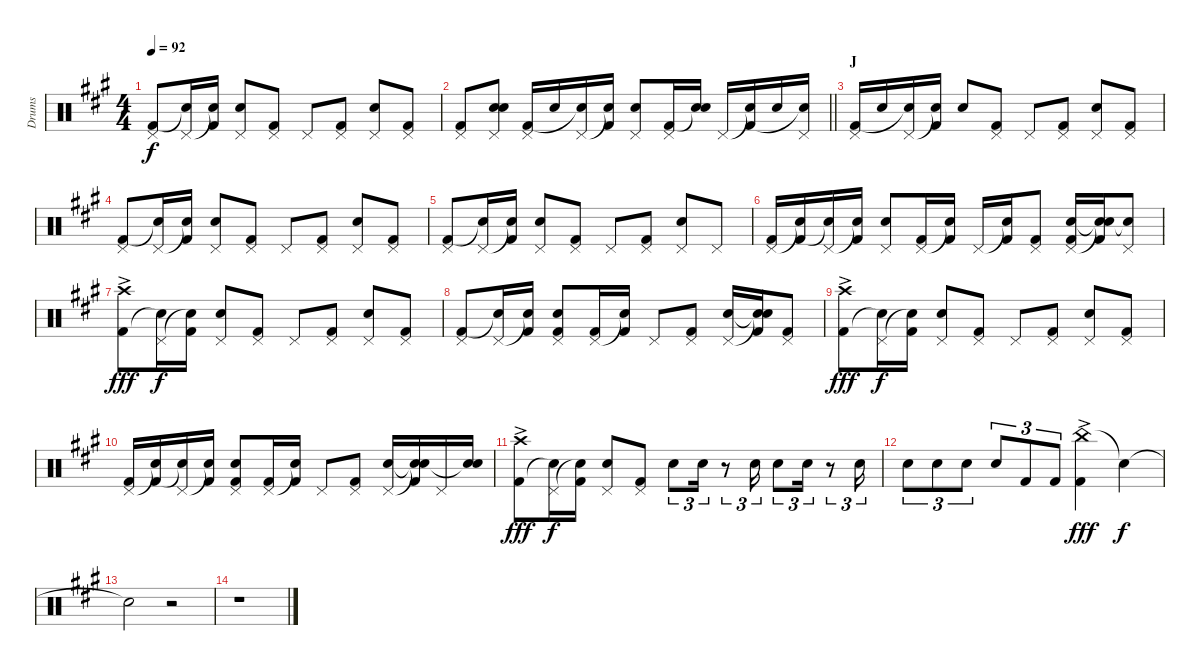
\track ("Drums" "Drums") {instrument percussion}
\staff {score}
\articulation defaults
\ts (4 4)
\tempo 92
\clef neutral
\ks a
("Pedal Hi-Hat (hit)" "Kick (hit) 2").8{dy f} ("Pedal Hi-Hat (hit)" "Snare (hit)"{t}).16 ("Snare (hit)"{t} "Kick (hit) 2").16 ("Pedal Hi-Hat (hit)" "Electric Snare (hit)").8 ("Pedal Hi-Hat (hit)" "Kick (hit) 2").8 "Pedal Hi-Hat (hit)".8 ("Pedal Hi-Hat (hit)" "Kick (hit) 2").8 ("Pedal Hi-Hat (hit)" "Electric Snare (hit)").8 ("Pedal Hi-Hat (hit)" "Kick (hit) 2").8 |
\barLineRight lightlight
("Pedal Hi-Hat (hit)" "Kick (hit) 2").8 ("Pedal Hi-Hat (hit)" "Electric Snare (hit)" "Snare (hit)").8 ("Pedal Hi-Hat (hit)" "Kick (hit) 2").16 "Electric Snare (hit)".16 ("Pedal Hi-Hat (hit)" "Snare (hit)"{t}).16 ("Snare (hit)"{t} "Kick (hit) 2").16 ("Pedal Hi-Hat (hit)" "Electric Snare (hit)").8 ("Pedal Hi-Hat (hit)" "Kick (hit) 2").16 ("Electric Snare (hit)" "Snare (hit)"{t}).16 "Pedal Hi-Hat (hit)".16 ("Snare (hit)"{t} "Kick (hit) 2").16 "Electric Snare (hit)".16 ("Pedal Hi-Hat (hit)" "Snare (hit)"{t}).16 |
\section ("" "J")
("Pedal Hi-Hat (hit)" "Kick (hit) 2").16 "Electric Snare (hit)".16 ("Pedal Hi-Hat (hit)" "Snare (hit)"{t}).16 ("Snare (hit)"{t} "Kick (hit) 2").16 "Electric Snare (hit)".8 ("Pedal Hi-Hat (hit)" "Kick (hit) 2").8 "Pedal Hi-Hat (hit)".8 ("Pedal Hi-Hat (hit)" "Kick (hit) 2").8 ("Pedal Hi-Hat (hit)" "Electric Snare (hit)").8 ("Pedal Hi-Hat (hit)" "Kick (hit) 2").8 |
("Pedal Hi-Hat (hit)" "Kick (hit) 2").8 ("Pedal Hi-Hat (hit)" "Snare (hit)"{t}).16 ("Snare (hit)"{t} "Kick (hit) 2").16 ("Pedal Hi-Hat (hit)" "Electric Snare (hit)").8 ("Pedal Hi-Hat (hit)" "Kick (hit) 2").8 "Pedal Hi-Hat (hit)".8 ("Pedal Hi-Hat (hit)" "Kick (hit) 2").8 ("Pedal Hi-Hat (hit)" "Electric Snare (hit)").8 ("Pedal Hi-Hat (hit)" "Kick (hit) 2").8 |
("Pedal Hi-Hat (hit)" "Kick (hit) 2").8 ("Pedal Hi-Hat (hit)" "Snare (hit)"{t}).16 ("Snare (hit)"{t} "Kick (hit) 2").16 ("Pedal Hi-Hat (hit)" "Electric Snare (hit)").8 ("Pedal Hi-Hat (hit)" "Kick (hit) 2").8 "Pedal Hi-Hat (hit)".8 ("Pedal Hi-Hat (hit)" "Kick (hit) 2").8 ("Pedal Hi-Hat (hit)" "Electric Snare (hit)").8 "Pedal Hi-Hat (hit)".8 |
("Pedal Hi-Hat (hit)" "Kick (hit) 2").16 ("Snare (hit)"{t} "Kick (hit) 2").16 ("Pedal Hi-Hat (hit)" "Snare (hit)"{t}).16 ("Snare (hit)"{t} "Kick (hit) 2").16 ("Pedal Hi-Hat (hit)" "Electric Snare (hit)").8 ("Pedal Hi-Hat (hit)" "Kick (hit) 2").16 ("Snare (hit)"{t} "Kick (hit) 2").16 "Pedal Hi-Hat (hit)".16 ("Snare (hit)"{t} "Kick (hit) 2").16 ("Pedal Hi-Hat (hit)" "Kick (hit) 2").8 ("Pedal Hi-Hat (hit)" "Electric Snare (hit)" "Kick (hit) 2").16 ("Snare (hit)"{t} "Snare (hit)"{t} "Kick (hit) 2").16 ("Pedal Hi-Hat (hit)" "Snare (hit)"{t}).8 |
("Crash high (hit)"{ac} "Kick (hit) 2").8{dy fff} ("Pedal Hi-Hat (hit)" "Snare (hit)"{t}).16{dy f} ("Snare (hit)"{t} "Kick (hit) 2").16 ("Pedal Hi-Hat (hit)" "Electric Snare (hit)").8 ("Pedal Hi-Hat (hit)" "Kick (hit) 2").8 "Pedal Hi-Hat (hit)".8 ("Pedal Hi-Hat (hit)" "Kick (hit) 2").8 ("Pedal Hi-Hat (hit)" "Electric Snare (hit)").8 ("Pedal Hi-Hat (hit)" "Kick (hit) 2").8 |
("Pedal Hi-Hat (hit)" "Kick (hit) 2").8 ("Pedal Hi-Hat (hit)" "Snare (hit)"{t}).16 ("Snare (hit)"{t} "Kick (hit) 2").16 ("Pedal Hi-Hat (hit)" "Electric Snare (hit)" "Kick (hit) 2").8 ("Pedal Hi-Hat (hit)" "Kick (hit) 2").16 ("Snare (hit)"{t} "Kick (hit) 2").16 "Pedal Hi-Hat (hit)".8 ("Pedal Hi-Hat (hit)" "Kick (hit) 2").8 ("Pedal Hi-Hat (hit)" "Electric Snare (hit)").16 ("Snare (hit)"{t} "Snare (hit)"{t} "Kick (hit) 2").16 ("Pedal Hi-Hat (hit)" "Kick (hit) 2").8 |
("Crash high (hit)"{ac} "Kick (hit) 2").8{dy fff} ("Pedal Hi-Hat (hit)" "Snare (hit)"{t}).16{dy f} ("Snare (hit)"{t} "Kick (hit) 2").16 ("Pedal Hi-Hat (hit)" "Electric Snare (hit)").8 ("Pedal Hi-Hat (hit)" "Kick (hit) 2").8 "Pedal Hi-Hat (hit)".8 ("Pedal Hi-Hat (hit)" "Kick (hit) 2").8 ("Pedal Hi-Hat (hit)" "Electric Snare (hit)").8 ("Pedal Hi-Hat (hit)" "Kick (hit) 2").8 |
("Pedal Hi-Hat (hit)" "Kick (hit) 2").16 ("Snare (hit)"{t} "Kick (hit) 2").16 ("Pedal Hi-Hat (hit)" "Snare (hit)"{t}).16 ("Snare (hit)"{t} "Kick (hit) 2").16 ("Pedal Hi-Hat (hit)" "Electric Snare (hit)" "Kick (hit) 2").8 ("Pedal Hi-Hat (hit)" "Kick (hit) 2").16 ("Snare (hit)"{t} "Kick (hit) 2").16 "Pedal Hi-Hat (hit)".8 ("Pedal Hi-Hat (hit)" "Kick (hit) 2").8 ("Pedal Hi-Hat (hit)" "Electric Snare (hit)").16 ("Snare (hit)"{t} "Snare (hit)"{t} "Kick (hit) 2").16 "Pedal Hi-Hat (hit)".16 ("Electric Snare (hit)" "Snare (hit)"{t}).16 |
("Crash high (hit)"{ac} "Kick (hit) 2").8{dy fff} ("Pedal Hi-Hat (hit)" "Snare (hit)"{t}).16{dy f} ("Snare (hit)"{t} "Kick (hit) 2").16 ("Pedal Hi-Hat (hit)" "Electric Snare (hit)").8 ("Pedal Hi-Hat (hit)" "Kick (hit) 2").8 "Electric Snare (hit)".8{tu (3 2)} "Electric Snare (hit)".16{tu (3 2)} r.8{tu (3 2)} "Electric Snare (hit)".16{tu (3 2)} "Electric Snare (hit)".8{tu (3 2)} "Electric Snare (hit)".16{tu (3 2)} r.8{tu (3 2)} "Electric Snare (hit)".16{tu (3 2)} |
"Electric Snare (hit)".8{tu (3 2)} "Electric Snare (hit)".8{tu (3 2)} "Electric Snare (hit)".8{tu (3 2)} "Electric Snare (hit)".8{tu (3 2)} "Kick (hit) 2".8{tu (3 2)} "Kick (hit) 2".8{tu (3 2)} ("China (hit)"{ac} "Kick (hit) 2").4{dy fff} "Snare (hit)"{t}.4{dy f} |
"Snare (hit)"{t}.2 r.2 |
r.1
